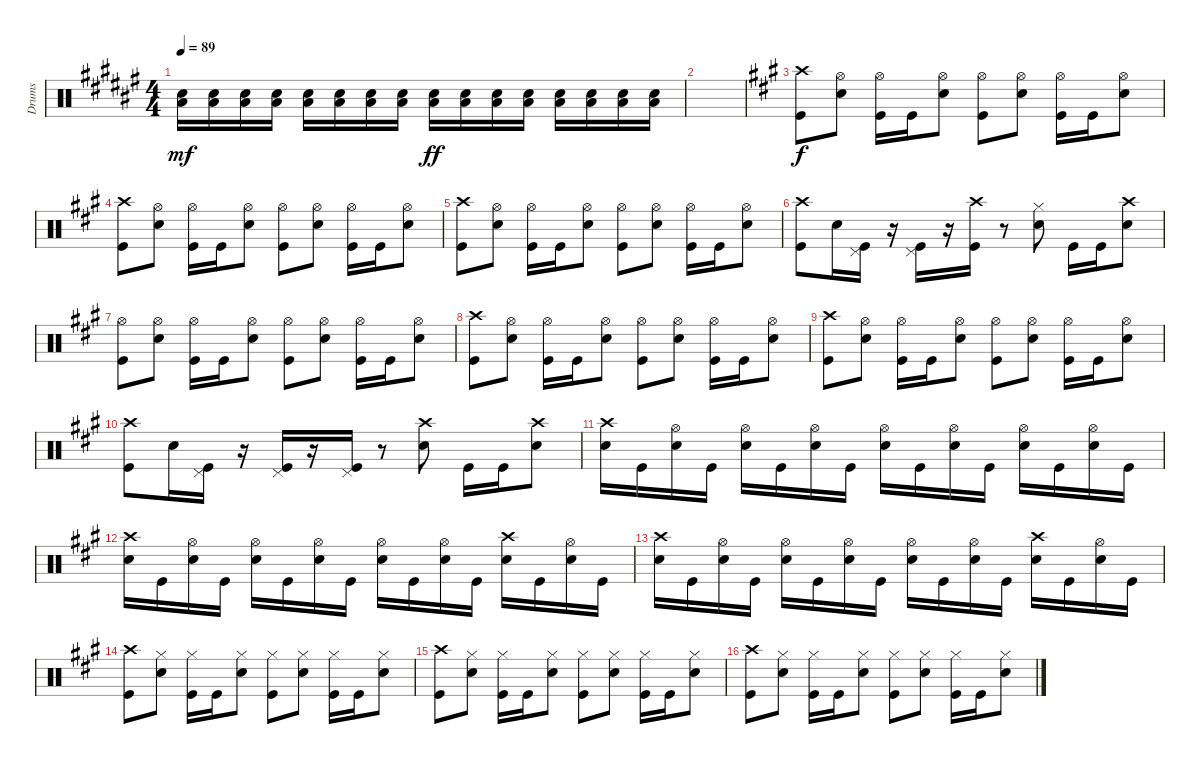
\track ("Drums" "Drums") {instrument percussion}
\staff {score}
\articulation defaults
\ts (4 4)
\tempo 89
\clef neutral
\ks f#
("Snare (hit) 2" "Low Floor Tom (hit)").16{dy mf} ("Snare (hit) 2" "Low Floor Tom (hit)").16 ("Snare (hit) 2" "Low Floor Tom (hit)").16 ("Snare (hit) 2" "Low Floor Tom (hit)").16 ("Snare (hit) 2" "Low Floor Tom (hit)").16 ("Snare (hit) 2" "Low Floor Tom (hit)").16 ("Snare (hit) 2" "Low Floor Tom (hit)").16 ("Snare (hit) 2" "Low Floor Tom (hit)").16 ("Snare (hit) 2" "Low Floor Tom (hit)").16{dy ff} ("Snare (hit) 2" "Low Floor Tom (hit)").16 ("Snare (hit) 2" "Low Floor Tom (hit)").16 ("Snare (hit) 2" "Low Floor Tom (hit)").16 ("Snare (hit) 2" "Low Floor Tom (hit)").16 ("Snare (hit) 2" "Low Floor Tom (hit)").16 ("Snare (hit) 2" "Low Floor Tom (hit)").16 ("Snare (hit) 2" "Low Floor Tom (hit)").16 |
|
\ks f#minor
("Crash high (hit)" "Kick (hit)").8{dy f} ("Hi-Hat (open)" "Snare (hit) 2").8 ("Hi-Hat (open)" "Kick (hit)").16 "Kick (hit)".16 ("Hi-Hat (open)" "Snare (hit) 2").8 ("Hi-Hat (open)" "Kick (hit)").8 ("Hi-Hat (open)" "Snare (hit) 2").8 ("Hi-Hat (open)" "Kick (hit)").16 "Kick (hit)".16 ("Hi-Hat (open)" "Snare (hit) 2").8 |
("Crash high (hit)" "Kick (hit)").8 ("Hi-Hat (open)" "Snare (hit) 2").8 ("Hi-Hat (open)" "Kick (hit)").16 "Kick (hit)".16 ("Hi-Hat (open)" "Snare (hit) 2").8 ("Hi-Hat (open)" "Kick (hit)").8 ("Hi-Hat (open)" "Snare (hit) 2").8 ("Hi-Hat (open)" "Kick (hit)").16 "Kick (hit)".16 ("Hi-Hat (open)" "Snare (hit) 2").8 |
("Crash high (hit)" "Kick (hit)").8 ("Hi-Hat (open)" "Snare (hit) 2").8 ("Hi-Hat (open)" "Kick (hit)").16 "Kick (hit)".16 ("Hi-Hat (open)" "Snare (hit) 2").8 ("Hi-Hat (open)" "Kick (hit)").8 ("Hi-Hat (open)" "Snare (hit) 2").8 ("Hi-Hat (open)" "Kick (hit)").16 "Kick (hit)".16 ("Hi-Hat (open)" "Snare (hit) 2").8 |
("Crash high (hit)" "Kick (hit)").8 "Snare (hit) 2".16 ("Pedal Hi-Hat (hit)" "Kick (hit)").16 r.16 ("Pedal Hi-Hat (hit)" "Kick (hit)").16 r.16 ("Crash high (hit)" "Kick (hit)").16 r.8 ("Hi-Hat (closed)" "Snare (hit) 2").8 "Kick (hit)".16 "Kick (hit)".16 ("Crash high (hit)" "Snare (hit) 2").8 |
("Hi-Hat (open)" "Kick (hit)").8 ("Hi-Hat (open)" "Snare (hit) 2").8 ("Hi-Hat (open)" "Kick (hit)").16 "Kick (hit)".16 ("Hi-Hat (open)" "Snare (hit) 2").8 ("Hi-Hat (open)" "Kick (hit)").8 ("Hi-Hat (open)" "Snare (hit) 2").8 ("Hi-Hat (open)" "Kick (hit)").16 "Kick (hit)".16 ("Hi-Hat (open)" "Snare (hit) 2").8 |
("Crash high (hit)" "Kick (hit)").8 ("Hi-Hat (open)" "Snare (hit) 2").8 ("Hi-Hat (open)" "Kick (hit)").16 "Kick (hit)".16 ("Hi-Hat (open)" "Snare (hit) 2").8 ("Hi-Hat (open)" "Kick (hit)").8 ("Hi-Hat (open)" "Snare (hit) 2").8 ("Hi-Hat (open)" "Kick (hit)").16 "Kick (hit)".16 ("Hi-Hat (open)" "Snare (hit) 2").8 |
("Crash high (hit)" "Kick (hit)").8 ("Hi-Hat (open)" "Snare (hit) 2").8 ("Hi-Hat (open)" "Kick (hit)").16 "Kick (hit)".16 ("Hi-Hat (open)" "Snare (hit) 2").8 ("Hi-Hat (open)" "Kick (hit)").8 ("Hi-Hat (open)" "Snare (hit) 2").8 ("Hi-Hat (open)" "Kick (hit)").16 "Kick (hit)".16 ("Hi-Hat (open)" "Snare (hit) 2").8 |
("Crash high (hit)" "Kick (hit)").8 "Snare (hit) 2".16 ("Pedal Hi-Hat (hit)" "Kick (hit)").16 r.16 ("Pedal Hi-Hat (hit)" "Kick (hit)").16 r.16 ("Pedal Hi-Hat (hit)" "Kick (hit)").16 r.8 ("Crash high (hit)" "Snare (hit) 2").8 "Kick (hit)".16 "Kick (hit)".16 ("Crash high (hit)" "Snare (hit) 2").8 |
("Crash high (hit)" "Snare (hit) 2").16 "Kick (hit)".16 ("Hi-Hat (open)" "Snare (hit) 2").16 "Kick (hit)".16 ("Hi-Hat (open)" "Snare (hit) 2").16 "Kick (hit)".16 ("Hi-Hat (open)" "Snare (hit) 2").16 "Kick (hit)".16 ("Hi-Hat (open)" "Snare (hit) 2").16 "Kick (hit)".16 ("Hi-Hat (open)" "Snare (hit) 2").16 "Kick (hit)".16 ("Hi-Hat (open)" "Snare (hit) 2").16 "Kick (hit)".16 ("Hi-Hat (open)" "Snare (hit) 2").16 "Kick (hit)".16 |
("Crash high (hit)" "Snare (hit) 2").16 "Kick (hit)".16 ("Hi-Hat (open)" "Snare (hit) 2").16 "Kick (hit)".16 ("Hi-Hat (open)" "Snare (hit) 2").16 "Kick (hit)".16 ("Hi-Hat (open)" "Snare (hit) 2").16 "Kick (hit)".16 ("Hi-Hat (open)" "Snare (hit) 2").16 "Kick (hit)".16 ("Hi-Hat (open)" "Snare (hit) 2").16 "Kick (hit)".16 ("Crash high (hit)" "Snare (hit) 2").16 "Kick (hit)".16 ("Hi-Hat (open)" "Snare (hit) 2").16 "Kick (hit)".16 |
("Crash high (hit)" "Snare (hit) 2").16 "Kick (hit)".16 ("Hi-Hat (open)" "Snare (hit) 2").16 "Kick (hit)".16 ("Hi-Hat (open)" "Snare (hit) 2").16 "Kick (hit)".16 ("Hi-Hat (open)" "Snare (hit) 2").16 "Kick (hit)".16 ("Hi-Hat (open)" "Snare (hit) 2").16 "Kick (hit)".16 ("Hi-Hat (open)" "Snare (hit) 2").16 "Kick (hit)".16 ("Crash high (hit)" "Snare (hit) 2").16 "Kick (hit)".16 ("Hi-Hat (open)" "Snare (hit) 2").16 "Kick (hit)".16 |
("Crash high (hit)" "Kick (hit)").8 ("Hi-Hat (closed)" "Snare (hit) 2").8 ("Hi-Hat (closed)" "Kick (hit)").16 "Kick (hit)".16 ("Hi-Hat (closed)" "Snare (hit) 2").8 ("Hi-Hat (closed)" "Kick (hit)").8 ("Hi-Hat (closed)" "Snare (hit) 2").8 ("Hi-Hat (closed)" "Kick (hit)").16 "Kick (hit)".16 ("Hi-Hat (closed)" "Snare (hit) 2").8 |
("Crash high (hit)" "Kick (hit)").8 ("Hi-Hat (closed)" "Snare (hit) 2").8 ("Hi-Hat (closed)" "Kick (hit)").16 "Kick (hit)".16 ("Hi-Hat (closed)" "Snare (hit) 2").8 ("Hi-Hat (closed)" "Kick (hit)").8 ("Hi-Hat (closed)" "Snare (hit) 2").8 ("Hi-Hat (closed)" "Kick (hit)").16 "Kick (hit)".16 ("Hi-Hat (closed)" "Snare (hit) 2").8 |
("Crash high (hit)" "Kick (hit)").8 ("Hi-Hat (closed)" "Snare (hit) 2").8 ("Hi-Hat (closed)" "Kick (hit)").16 "Kick (hit)".16 ("Hi-Hat (closed)" "Snare (hit) 2").8 ("Hi-Hat (closed)" "Kick (hit)").8 ("Hi-Hat (closed)" "Snare (hit) 2").8 ("Hi-Hat (closed)" "Kick (hit)").16 "Kick (hit)".16 ("Hi-Hat (closed)" "Snare (hit) 2").8
